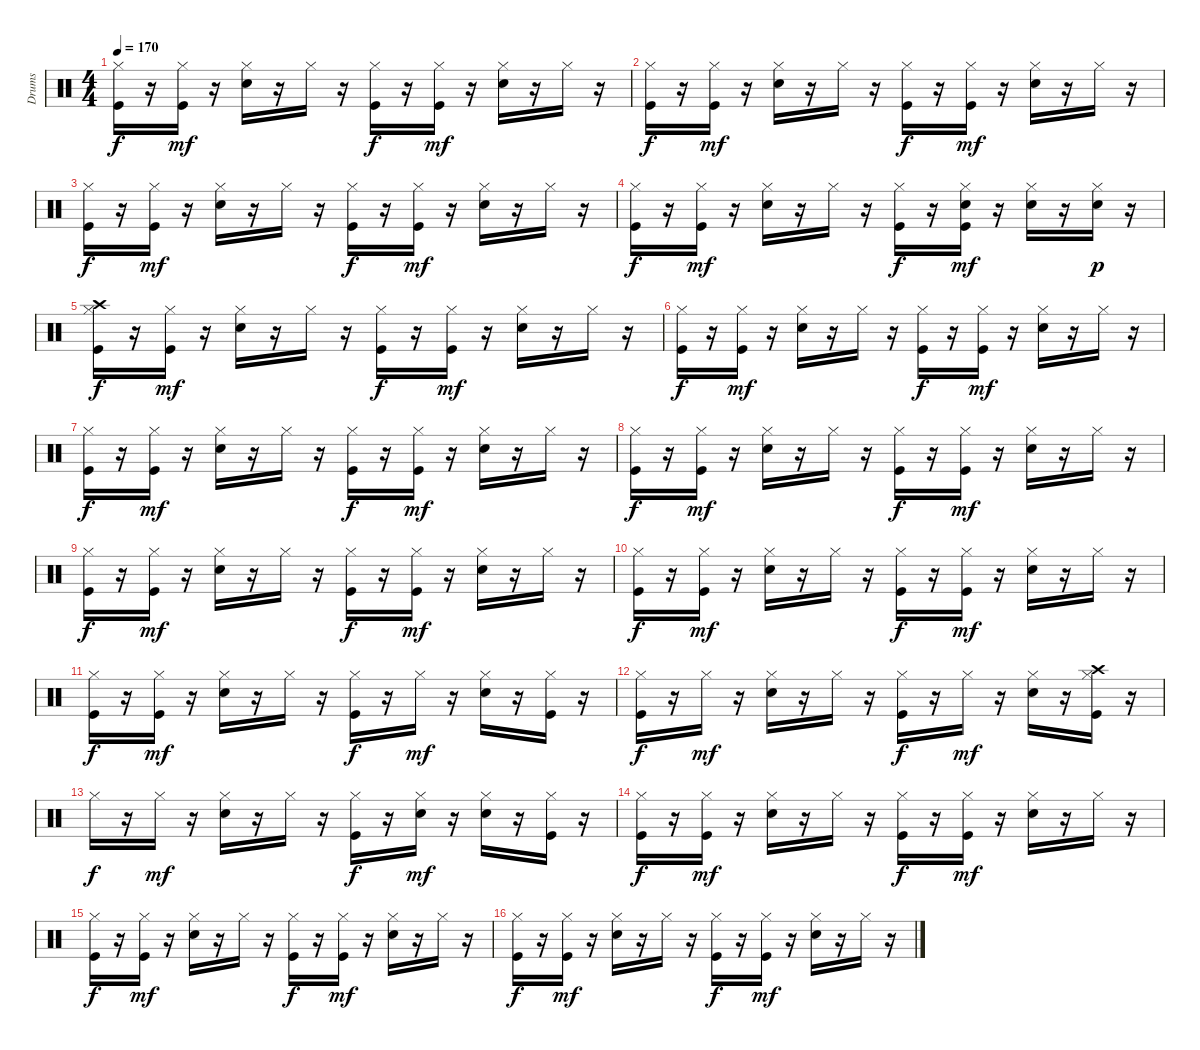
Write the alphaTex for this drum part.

\track ("Drums" "Drums") {instrument percussion}
\staff {score}
\articulation defaults
\ts (4 4)
\tempo 170
\clef neutral
\ks c
("Hi-Hat (closed)" "Kick (hit)").16{dy f} r.16 ("Hi-Hat (closed)" "Kick (hit)").16{dy mf} r.16 ("Hi-Hat (closed)" "Electric Snare (hit)").16 r.16 "Hi-Hat (closed)".16 r.16 ("Hi-Hat (closed)" "Kick (hit)").16{dy f} r.16 ("Hi-Hat (closed)" "Kick (hit)").16{dy mf} r.16 ("Hi-Hat (closed)" "Electric Snare (hit)").16 r.16 "Hi-Hat (closed)".16 r.16 |
("Hi-Hat (closed)" "Kick (hit)").16{dy f} r.16 ("Hi-Hat (closed)" "Kick (hit)").16{dy mf} r.16 ("Hi-Hat (closed)" "Electric Snare (hit)").16 r.16 "Hi-Hat (closed)".16 r.16 ("Hi-Hat (closed)" "Kick (hit)").16{dy f} r.16 ("Hi-Hat (closed)" "Kick (hit)").16{dy mf} r.16 ("Hi-Hat (closed)" "Electric Snare (hit)").16 r.16 "Hi-Hat (closed)".16 r.16 |
("Hi-Hat (closed)" "Kick (hit)").16{dy f} r.16 ("Hi-Hat (closed)" "Kick (hit)").16{dy mf} r.16 ("Hi-Hat (closed)" "Electric Snare (hit)").16 r.16 "Hi-Hat (closed)".16 r.16 ("Hi-Hat (closed)" "Kick (hit)").16{dy f} r.16 ("Hi-Hat (closed)" "Kick (hit)").16{dy mf} r.16 ("Hi-Hat (closed)" "Electric Snare (hit)").16 r.16 "Hi-Hat (closed)".16 r.16 |
("Hi-Hat (closed)" "Kick (hit)").16{dy f} r.16 ("Hi-Hat (closed)" "Kick (hit)").16{dy mf} r.16 ("Hi-Hat (closed)" "Electric Snare (hit)").16 r.16 "Hi-Hat (closed)".16 r.16 ("Hi-Hat (closed)" "Kick (hit)").16{dy f} r.16 ("Hi-Hat (closed)" "Kick (hit)" "Electric Snare (hit)").16{dy mf} r.16 ("Hi-Hat (closed)" "Electric Snare (hit)").16 r.16 ("Hi-Hat (closed)" "Electric Snare (hit)").16{dy p} r.16 |
("Hi-Hat (closed)" "Crash high (hit)" "Kick (hit)").16{dy f} r.16 ("Hi-Hat (closed)" "Kick (hit)").16{dy mf} r.16 ("Hi-Hat (closed)" "Electric Snare (hit)").16 r.16 "Hi-Hat (closed)".16 r.16 ("Hi-Hat (closed)" "Kick (hit)").16{dy f} r.16 ("Hi-Hat (closed)" "Kick (hit)").16{dy mf} r.16 ("Hi-Hat (closed)" "Electric Snare (hit)").16 r.16 "Hi-Hat (closed)".16 r.16 |
("Hi-Hat (closed)" "Kick (hit)").16{dy f} r.16 ("Hi-Hat (closed)" "Kick (hit)").16{dy mf} r.16 ("Hi-Hat (closed)" "Electric Snare (hit)").16 r.16 "Hi-Hat (closed)".16 r.16 ("Hi-Hat (closed)" "Kick (hit)").16{dy f} r.16 ("Hi-Hat (closed)" "Kick (hit)").16{dy mf} r.16 ("Hi-Hat (closed)" "Electric Snare (hit)").16 r.16 "Hi-Hat (closed)".16 r.16 |
("Hi-Hat (closed)" "Kick (hit)").16{dy f} r.16 ("Hi-Hat (closed)" "Kick (hit)").16{dy mf} r.16 ("Hi-Hat (closed)" "Electric Snare (hit)").16 r.16 "Hi-Hat (closed)".16 r.16 ("Hi-Hat (closed)" "Kick (hit)").16{dy f} r.16 ("Hi-Hat (closed)" "Kick (hit)").16{dy mf} r.16 ("Hi-Hat (closed)" "Electric Snare (hit)").16 r.16 "Hi-Hat (closed)".16 r.16 |
("Hi-Hat (closed)" "Kick (hit)").16{dy f} r.16 ("Hi-Hat (closed)" "Kick (hit)").16{dy mf} r.16 ("Hi-Hat (closed)" "Electric Snare (hit)").16 r.16 "Hi-Hat (closed)".16 r.16 ("Hi-Hat (closed)" "Kick (hit)").16{dy f} r.16 ("Hi-Hat (closed)" "Kick (hit)").16{dy mf} r.16 ("Hi-Hat (closed)" "Electric Snare (hit)").16 r.16 "Hi-Hat (closed)".16 r.16 |
("Hi-Hat (closed)" "Kick (hit)").16{dy f} r.16 ("Hi-Hat (closed)" "Kick (hit)").16{dy mf} r.16 ("Hi-Hat (closed)" "Electric Snare (hit)").16 r.16 "Hi-Hat (closed)".16 r.16 ("Hi-Hat (closed)" "Kick (hit)").16{dy f} r.16 ("Hi-Hat (closed)" "Kick (hit)").16{dy mf} r.16 ("Hi-Hat (closed)" "Electric Snare (hit)").16 r.16 "Hi-Hat (closed)".16 r.16 |
("Hi-Hat (closed)" "Kick (hit)").16{dy f} r.16 ("Hi-Hat (closed)" "Kick (hit)").16{dy mf} r.16 ("Hi-Hat (closed)" "Electric Snare (hit)").16 r.16 "Hi-Hat (closed)".16 r.16 ("Hi-Hat (closed)" "Kick (hit)").16{dy f} r.16 ("Hi-Hat (closed)" "Kick (hit)").16{dy mf} r.16 ("Hi-Hat (closed)" "Electric Snare (hit)").16 r.16 "Hi-Hat (closed)".16 r.16 |
("Hi-Hat (closed)" "Kick (hit)").16{dy f} r.16 ("Hi-Hat (closed)" "Kick (hit)").16{dy mf} r.16 ("Hi-Hat (closed)" "Electric Snare (hit)").16 r.16 "Hi-Hat (closed)".16 r.16 ("Hi-Hat (closed)" "Kick (hit)").16{dy f} r.16 "Hi-Hat (closed)".16{dy mf} r.16 ("Hi-Hat (closed)" "Electric Snare (hit)").16 r.16 ("Hi-Hat (closed)" "Kick (hit)").16 r.16 |
("Hi-Hat (closed)" "Kick (hit)").16{dy f} r.16 "Hi-Hat (closed)".16{dy mf} r.16 ("Hi-Hat (closed)" "Electric Snare (hit)").16 r.16 "Hi-Hat (closed)".16 r.16 ("Hi-Hat (closed)" "Kick (hit)").16{dy f} r.16 "Hi-Hat (closed)".16{dy mf} r.16 ("Hi-Hat (closed)" "Electric Snare (hit)").16 r.16 ("Hi-Hat (closed)" "Crash high (hit)" "Kick (hit)").16 r.16 |
"Hi-Hat (closed)".16{dy f} r.16 "Hi-Hat (closed)".16{dy mf} r.16 ("Hi-Hat (closed)" "Electric Snare (hit)").16 r.16 "Hi-Hat (closed)".16 r.16 ("Hi-Hat (closed)" "Kick (hit)").16{dy f} r.16 ("Hi-Hat (closed)" "Electric Snare (hit)").16{dy mf} r.16 ("Hi-Hat (closed)" "Electric Snare (hit)").16 r.16 ("Hi-Hat (closed)" "Kick (hit)").16 r.16 |
("Hi-Hat (closed)" "Kick (hit)").16{dy f} r.16 ("Hi-Hat (closed)" "Kick (hit)").16{dy mf} r.16 ("Hi-Hat (closed)" "Electric Snare (hit)").16 r.16 "Hi-Hat (closed)".16 r.16 ("Hi-Hat (closed)" "Kick (hit)").16{dy f} r.16 ("Hi-Hat (closed)" "Kick (hit)").16{dy mf} r.16 ("Hi-Hat (closed)" "Electric Snare (hit)").16 r.16 "Hi-Hat (closed)".16 r.16 |
("Hi-Hat (closed)" "Kick (hit)").16{dy f} r.16 ("Hi-Hat (closed)" "Kick (hit)").16{dy mf} r.16 ("Hi-Hat (closed)" "Electric Snare (hit)").16 r.16 "Hi-Hat (closed)".16 r.16 ("Hi-Hat (closed)" "Kick (hit)").16{dy f} r.16 ("Hi-Hat (closed)" "Kick (hit)").16{dy mf} r.16 ("Hi-Hat (closed)" "Electric Snare (hit)").16 r.16 "Hi-Hat (closed)".16 r.16 |
("Hi-Hat (closed)" "Kick (hit)").16{dy f} r.16 ("Hi-Hat (closed)" "Kick (hit)").16{dy mf} r.16 ("Hi-Hat (closed)" "Electric Snare (hit)").16 r.16 "Hi-Hat (closed)".16 r.16 ("Hi-Hat (closed)" "Kick (hit)").16{dy f} r.16 ("Hi-Hat (closed)" "Kick (hit)").16{dy mf} r.16 ("Hi-Hat (closed)" "Electric Snare (hit)").16 r.16 "Hi-Hat (closed)".16 r.16
